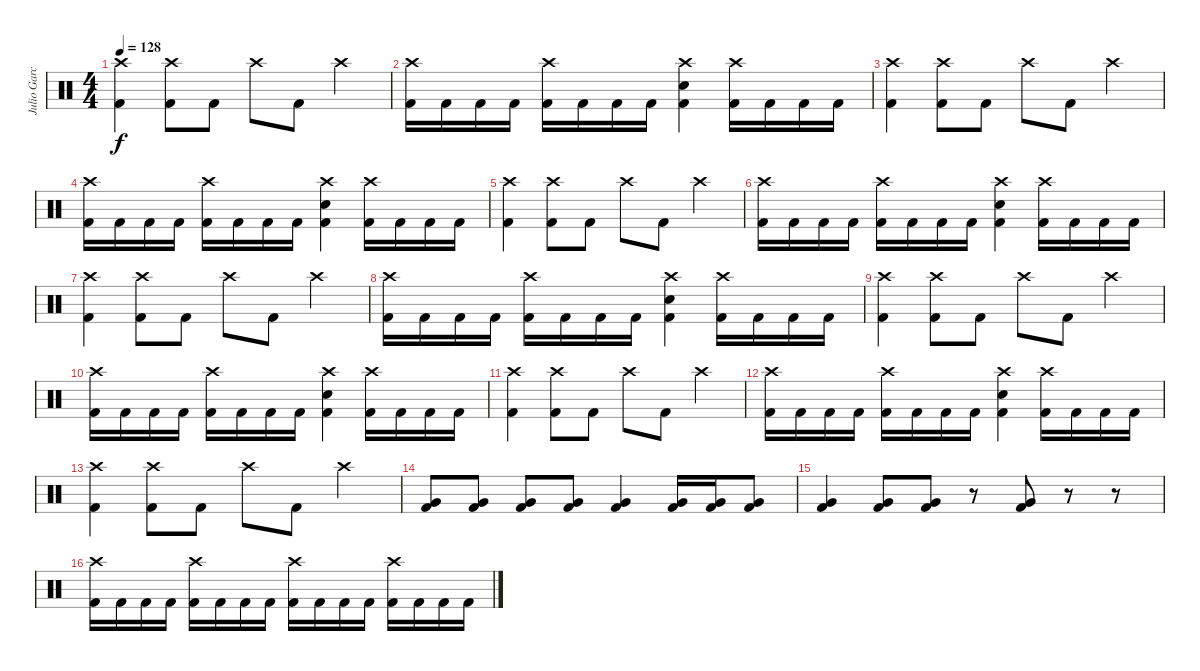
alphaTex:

\track ("Julio Garcia" "Julio Garc") {instrument percussion}
\staff {score}
\articulation defaults
\ts (4 4)
\tempo 128
\clef neutral
\ks c
("Crash high (hit)" "Kick (hit) 2").4{dy f} ("Crash high (hit)" "Kick (hit) 2").8 "Kick (hit) 2".8 "Crash high (hit)".8 "Kick (hit) 2".8 "Crash high (hit)".4 |
("Crash high (hit)" "Kick (hit) 2").16 "Kick (hit) 2".16 "Kick (hit) 2".16 "Kick (hit) 2".16 ("Crash high (hit)" "Kick (hit) 2").16 "Kick (hit) 2".16 "Kick (hit) 2".16 "Kick (hit) 2".16 ("Crash high (hit)" "Electric Snare (hit)" "Kick (hit) 2").4 ("Crash high (hit)" "Kick (hit) 2").16 "Kick (hit) 2".16 "Kick (hit) 2".16 "Kick (hit) 2".16 |
("Crash high (hit)" "Kick (hit) 2").4 ("Crash high (hit)" "Kick (hit) 2").8 "Kick (hit) 2".8 "Crash high (hit)".8 "Kick (hit) 2".8 "Crash high (hit)".4 |
("Crash high (hit)" "Kick (hit) 2").16 "Kick (hit) 2".16 "Kick (hit) 2".16 "Kick (hit) 2".16 ("Crash high (hit)" "Kick (hit) 2").16 "Kick (hit) 2".16 "Kick (hit) 2".16 "Kick (hit) 2".16 ("Crash high (hit)" "Electric Snare (hit)" "Kick (hit) 2").4 ("Crash high (hit)" "Kick (hit) 2").16 "Kick (hit) 2".16 "Kick (hit) 2".16 "Kick (hit) 2".16 |
("Crash high (hit)" "Kick (hit) 2").4 ("Crash high (hit)" "Kick (hit) 2").8 "Kick (hit) 2".8 "Crash high (hit)".8 "Kick (hit) 2".8 "Crash high (hit)".4 |
("Crash high (hit)" "Kick (hit) 2").16 "Kick (hit) 2".16 "Kick (hit) 2".16 "Kick (hit) 2".16 ("Crash high (hit)" "Kick (hit) 2").16 "Kick (hit) 2".16 "Kick (hit) 2".16 "Kick (hit) 2".16 ("Crash high (hit)" "Electric Snare (hit)" "Kick (hit) 2").4 ("Crash high (hit)" "Kick (hit) 2").16 "Kick (hit) 2".16 "Kick (hit) 2".16 "Kick (hit) 2".16 |
("Crash high (hit)" "Kick (hit) 2").4 ("Crash high (hit)" "Kick (hit) 2").8 "Kick (hit) 2".8 "Crash high (hit)".8 "Kick (hit) 2".8 "Crash high (hit)".4 |
("Crash high (hit)" "Kick (hit) 2").16 "Kick (hit) 2".16 "Kick (hit) 2".16 "Kick (hit) 2".16 ("Crash high (hit)" "Kick (hit) 2").16 "Kick (hit) 2".16 "Kick (hit) 2".16 "Kick (hit) 2".16 ("Crash high (hit)" "Electric Snare (hit)" "Kick (hit) 2").4 ("Crash high (hit)" "Kick (hit) 2").16 "Kick (hit) 2".16 "Kick (hit) 2".16 "Kick (hit) 2".16 |
("Crash high (hit)" "Kick (hit) 2").4 ("Crash high (hit)" "Kick (hit) 2").8 "Kick (hit) 2".8 "Crash high (hit)".8 "Kick (hit) 2".8 "Crash high (hit)".4 |
("Crash high (hit)" "Kick (hit) 2").16 "Kick (hit) 2".16 "Kick (hit) 2".16 "Kick (hit) 2".16 ("Crash high (hit)" "Kick (hit) 2").16 "Kick (hit) 2".16 "Kick (hit) 2".16 "Kick (hit) 2".16 ("Crash high (hit)" "Electric Snare (hit)" "Kick (hit) 2").4 ("Crash high (hit)" "Kick (hit) 2").16 "Kick (hit) 2".16 "Kick (hit) 2".16 "Kick (hit) 2".16 |
("Crash high (hit)" "Kick (hit) 2").4 ("Crash high (hit)" "Kick (hit) 2").8 "Kick (hit) 2".8 "Crash high (hit)".8 "Kick (hit) 2".8 "Crash high (hit)".4 |
("Crash high (hit)" "Kick (hit) 2").16 "Kick (hit) 2".16 "Kick (hit) 2".16 "Kick (hit) 2".16 ("Crash high (hit)" "Kick (hit) 2").16 "Kick (hit) 2".16 "Kick (hit) 2".16 "Kick (hit) 2".16 ("Crash high (hit)" "Electric Snare (hit)" "Kick (hit) 2").4 ("Crash high (hit)" "Kick (hit) 2").16 "Kick (hit) 2".16 "Kick (hit) 2".16 "Kick (hit) 2".16 |
("Crash high (hit)" "Kick (hit) 2").4 ("Crash high (hit)" "Kick (hit) 2").8 "Kick (hit) 2".8 "Crash high (hit)".8 "Kick (hit) 2".8 "Crash high (hit)".4 |
("Very Low Tom (hit)" "Kick (hit) 2").8 ("Very Low Tom (hit)" "Kick (hit) 2").8 ("Very Low Tom (hit)" "Kick (hit) 2").8 ("Very Low Tom (hit)" "Kick (hit) 2").8 ("Very Low Tom (hit)" "Kick (hit) 2").4 ("Very Low Tom (hit)" "Kick (hit) 2").16 ("Very Low Tom (hit)" "Kick (hit) 2").16 ("Very Low Tom (hit)" "Kick (hit) 2").8 |
("Very Low Tom (hit)" "Kick (hit) 2").4 ("Very Low Tom (hit)" "Kick (hit) 2").8 ("Very Low Tom (hit)" "Kick (hit) 2").8 r.8 ("Very Low Tom (hit)" "Kick (hit) 2").8 r.8 r.8 |
("Crash high (hit)" "Kick (hit) 2").16 "Kick (hit) 2".16 "Kick (hit) 2".16 "Kick (hit) 2".16 ("Crash high (hit)" "Kick (hit) 2").16 "Kick (hit) 2".16 "Kick (hit) 2".16 "Kick (hit) 2".16 ("Crash high (hit)" "Kick (hit) 2").16 "Kick (hit) 2".16 "Kick (hit) 2".16 "Kick (hit) 2".16 ("Crash high (hit)" "Kick (hit) 2").16 "Kick (hit) 2".16 "Kick (hit) 2".16 "Kick (hit) 2".16
